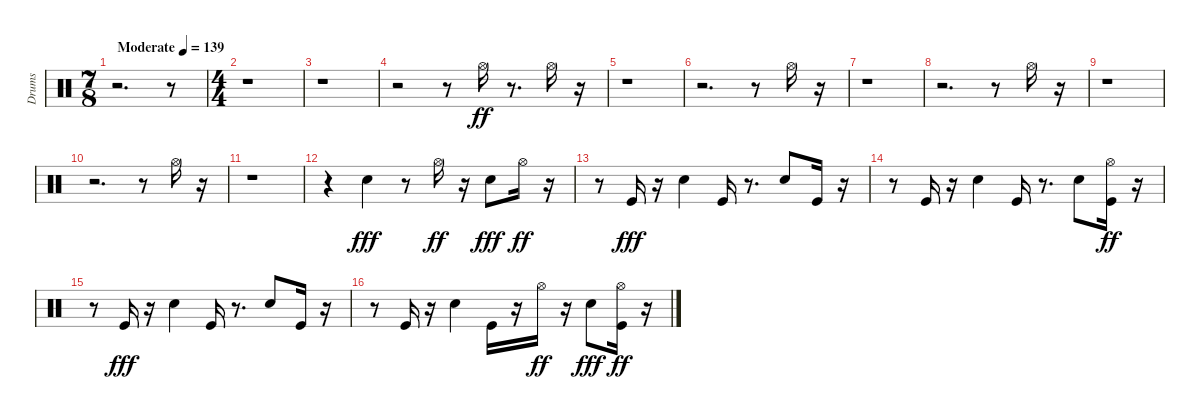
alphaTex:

\track ("Drums" "Drums") {instrument percussion}
\staff {score}
\articulation defaults
\ts (7 8)
\tempo (139 "Moderate")
\clef neutral
\ks c
r.2{d dy ff} r.8 |
\ts (4 4)
r.1 |
r.1 |
r.2 r.8 "Hi-Hat (open)".16 r.8{d} "Hi-Hat (open)".16 r.16 |
r.1 |
r.2{d} r.8 "Hi-Hat (open)".16 r.16 |
r.1 |
r.2{d} r.8 "Hi-Hat (open)".16 r.16 |
r.1 |
r.2{d} r.8 "Hi-Hat (open)".16 r.16 |
r.1 |
r.4 "Snare (hit) 2".4{dy fff} r.8 "Hi-Hat (open)".16{dy ff} r.16 "Snare (hit) 2".8{dy fff} "Hi-Hat (open)".16{dy ff} r.16 |
r.8 "Kick (hit)".16{dy fff} r.16 "Snare (hit) 2".4 "Kick (hit)".16 r.8{d} "Snare (hit) 2".8 "Kick (hit)".16 r.16 |
r.8 "Kick (hit)".16 r.16 "Snare (hit) 2".4 "Kick (hit)".16 r.8{d} "Snare (hit) 2".8 ("Kick (hit)" "Hi-Hat (open)").16{dy ff} r.16 |
r.8 "Kick (hit)".16{dy fff} r.16 "Snare (hit) 2".4 "Kick (hit)".16 r.8{d} "Snare (hit) 2".8 "Kick (hit)".16 r.16 |
r.8 "Kick (hit)".16 r.16 "Snare (hit) 2".4 "Kick (hit)".16 r.16 "Hi-Hat (open)".16{dy ff} r.16 "Snare (hit) 2".8{dy fff} ("Kick (hit)" "Hi-Hat (open)").16{dy ff} r.16
